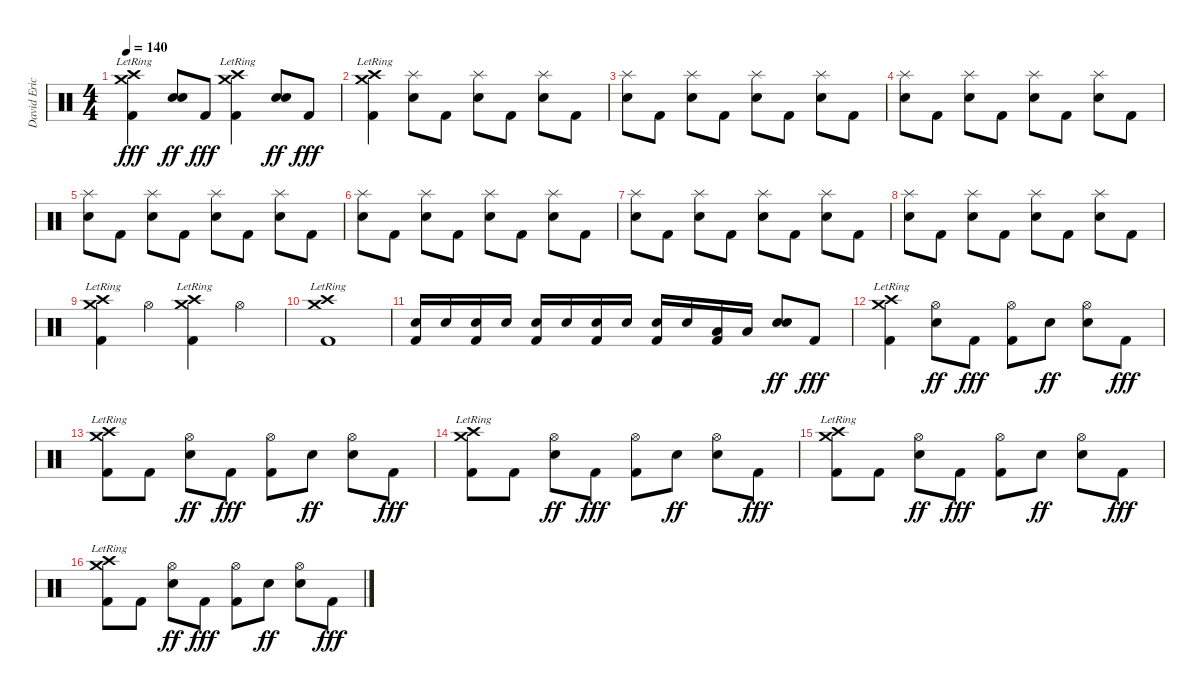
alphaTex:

\track ("David Eric Grohl" "David Eric") {instrument percussion}
\staff {score}
\articulation defaults
\ts (4 4)
\tempo 140
\clef neutral
\ks c
("Crash high (hit)"{lr} "Crash medium (hit)"{lr} "Kick (hit) 2").4{dy fff} ("Electric Snare (hit)" "Electric Snare (hit)").8{dy ff} "Kick (hit) 2".8{dy fff} ("Crash high (hit)"{lr} "Crash medium (hit)"{lr} "Kick (hit) 2").4 ("Electric Snare (hit)" "Electric Snare (hit)").8{dy ff} "Kick (hit) 2".8{dy fff} |
("Crash high (hit)"{lr} "Crash medium (hit)"{lr} "Kick (hit) 2").4 ("Electric Snare (hit)" "Splash (hit)").8 "Kick (hit) 2".8 ("Electric Snare (hit)" "Splash (hit)").8 "Kick (hit) 2".8 ("Electric Snare (hit)" "Splash (hit)").8 "Kick (hit) 2".8 |
("Electric Snare (hit)" "Splash (hit)").8 "Kick (hit) 2".8 ("Electric Snare (hit)" "Splash (hit)").8 "Kick (hit) 2".8 ("Electric Snare (hit)" "Splash (hit)").8 "Kick (hit) 2".8 ("Electric Snare (hit)" "Splash (hit)").8 "Kick (hit) 2".8 |
("Electric Snare (hit)" "Splash (hit)").8 "Kick (hit) 2".8 ("Electric Snare (hit)" "Splash (hit)").8 "Kick (hit) 2".8 ("Electric Snare (hit)" "Splash (hit)").8 "Kick (hit) 2".8 ("Electric Snare (hit)" "Splash (hit)").8 "Kick (hit) 2".8 |
("Electric Snare (hit)" "Splash (hit)").8 "Kick (hit) 2".8 ("Electric Snare (hit)" "Splash (hit)").8 "Kick (hit) 2".8 ("Electric Snare (hit)" "Splash (hit)").8 "Kick (hit) 2".8 ("Electric Snare (hit)" "Splash (hit)").8 "Kick (hit) 2".8 |
("Electric Snare (hit)" "Splash (hit)").8 "Kick (hit) 2".8 ("Electric Snare (hit)" "Splash (hit)").8 "Kick (hit) 2".8 ("Electric Snare (hit)" "Splash (hit)").8 "Kick (hit) 2".8 ("Electric Snare (hit)" "Splash (hit)").8 "Kick (hit) 2".8 |
("Electric Snare (hit)" "Splash (hit)").8 "Kick (hit) 2".8 ("Electric Snare (hit)" "Splash (hit)").8 "Kick (hit) 2".8 ("Electric Snare (hit)" "Splash (hit)").8 "Kick (hit) 2".8 ("Electric Snare (hit)" "Splash (hit)").8 "Kick (hit) 2".8 |
("Electric Snare (hit)" "Splash (hit)").8 "Kick (hit) 2".8 ("Electric Snare (hit)" "Splash (hit)").8 "Kick (hit) 2".8 ("Electric Snare (hit)" "Splash (hit)").8 "Kick (hit) 2".8 ("Electric Snare (hit)" "Splash (hit)").8 "Kick (hit) 2".8 |
("Crash high (hit)"{lr} "Crash medium (hit)"{lr} "Kick (hit) 2").4 "Hi-Hat (open)".4 ("Crash high (hit)"{lr} "Crash medium (hit)" "Kick (hit) 2").4 "Hi-Hat (open)".4 |
("Crash high (hit)"{lr} "Crash medium (hit)"{lr} "Kick (hit) 2").1 |
("Electric Snare (hit)" "Kick (hit) 2").16 "Electric Snare (hit)".16 ("Electric Snare (hit)" "Kick (hit) 2").16 "Electric Snare (hit)".16 ("Electric Snare (hit)" "Kick (hit) 2").16 "Electric Snare (hit)".16 ("Electric Snare (hit)" "Kick (hit) 2").16 "Electric Snare (hit)".16 ("Electric Snare (hit)" "Kick (hit) 2").16 "Electric Snare (hit)".16 ("Low Tom (hit)" "Kick (hit) 2").16 "Low Tom (hit)".16 ("Electric Snare (hit)" "Electric Snare (hit)").8{dy ff} "Kick (hit) 2".8{dy fff} |
("Crash high (hit)"{lr} "Crash medium (hit)"{lr} "Kick (hit) 2").4 ("Hi-Hat (open)" "Electric Snare (hit)").8{dy ff} "Kick (hit) 2".8{dy fff} ("Hi-Hat (open)" "Kick (hit) 2").8 "Electric Snare (hit)".8{dy ff} ("Hi-Hat (open)" "Electric Snare (hit)").8 "Kick (hit) 2".8{dy fff} |
("Crash high (hit)"{lr} "Crash medium (hit)"{lr} "Kick (hit) 2").8 "Kick (hit) 2".8 ("Hi-Hat (open)" "Electric Snare (hit)").8{dy ff} "Kick (hit) 2".8{dy fff} ("Hi-Hat (open)" "Kick (hit) 2").8 "Electric Snare (hit)".8{dy ff} ("Hi-Hat (open)" "Electric Snare (hit)").8 "Kick (hit) 2".8{dy fff} |
("Crash high (hit)"{lr} "Crash medium (hit)"{lr} "Kick (hit) 2").8 "Kick (hit) 2".8 ("Hi-Hat (open)" "Electric Snare (hit)").8{dy ff} "Kick (hit) 2".8{dy fff} ("Hi-Hat (open)" "Kick (hit) 2").8 "Electric Snare (hit)".8{dy ff} ("Hi-Hat (open)" "Electric Snare (hit)").8 "Kick (hit) 2".8{dy fff} |
("Crash high (hit)"{lr} "Crash medium (hit)"{lr} "Kick (hit) 2").8 "Kick (hit) 2".8 ("Hi-Hat (open)" "Electric Snare (hit)").8{dy ff} "Kick (hit) 2".8{dy fff} ("Hi-Hat (open)" "Kick (hit) 2").8 "Electric Snare (hit)".8{dy ff} ("Hi-Hat (open)" "Electric Snare (hit)").8 "Kick (hit) 2".8{dy fff} |
("Crash high (hit)"{lr} "Crash medium (hit)"{lr} "Kick (hit) 2").8 "Kick (hit) 2".8 ("Hi-Hat (open)" "Electric Snare (hit)").8{dy ff} "Kick (hit) 2".8{dy fff} ("Hi-Hat (open)" "Kick (hit) 2").8 "Electric Snare (hit)".8{dy ff} ("Hi-Hat (open)" "Electric Snare (hit)").8 "Kick (hit) 2".8{dy fff}
